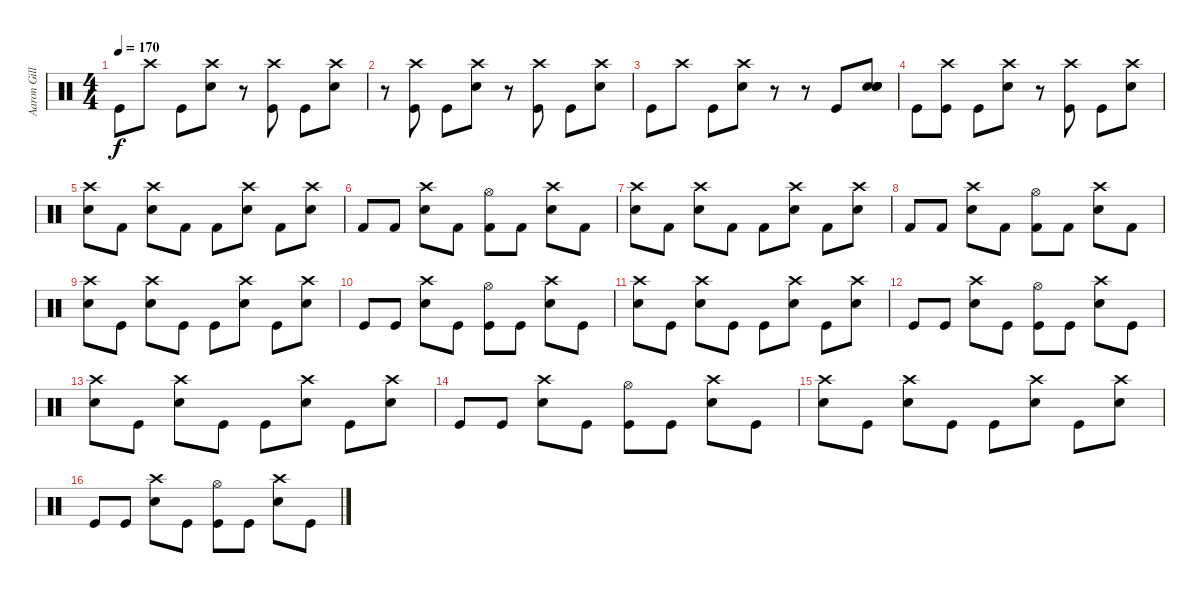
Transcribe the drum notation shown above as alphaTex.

\track ("Aaron Gillepsie (Drums)" "Aaron Gill") {instrument percussion}
\staff {score}
\articulation defaults
\ts (4 4)
\tempo 170
\clef neutral
\ks c "Kick (hit)".8{dy f} "Crash high (hit)".8 "Kick (hit)".8
("Crash high (hit)" "Electric Snare (hit)").8 r.8 ("Crash high (hit)" "Kick (hit)").8 "Kick (hit)".8 ("Crash high (hit)" "Electric Snare (hit)").8 |
r.8 ("Crash high (hit)" "Kick (hit)").8 "Kick (hit)".8 ("Crash high (hit)" "Electric Snare (hit)").8 r.8 ("Crash high (hit)" "Kick (hit)").8 "Kick (hit)".8 ("Crash high (hit)" "Electric Snare (hit)").8 |
"Kick (hit)".8 "Crash high (hit)".8 "Kick (hit)".8 ("Crash high (hit)" "Electric Snare (hit)").8 r.8 r.8 "Kick (hit)".8 ("Electric Snare (hit)" "Electric Snare (hit)" "Electric Snare (hit)").8 |
"Kick (hit)".8 ("Crash high (hit)" "Kick (hit)").8 "Kick (hit)".8 ("Crash high (hit)" "Electric Snare (hit)").8 r.8 ("Crash high (hit)" "Kick (hit)").8 "Kick (hit)".8 ("Crash high (hit)" "Electric Snare (hit)").8 |
("Crash high (hit)" "Snare (hit) 2").8 "Kick (hit) 2".8 ("Crash high (hit)" "Snare (hit) 2").8 "Kick (hit) 2".8 "Kick (hit) 2".8 ("Crash high (hit)" "Snare (hit) 2").8 "Kick (hit) 2".8 ("Crash high (hit)" "Snare (hit) 2").8 |
"Kick (hit) 2".8 "Kick (hit) 2".8 ("Crash high (hit)" "Snare (hit) 2").8 "Kick (hit) 2".8 ("Hi-Hat (open)" "Kick (hit) 2").8 "Kick (hit) 2".8 ("Crash high (hit)" "Snare (hit) 2").8 "Kick (hit) 2".8 |
("Crash high (hit)" "Snare (hit) 2").8 "Kick (hit) 2".8 ("Crash high (hit)" "Snare (hit) 2").8 "Kick (hit) 2".8 "Kick (hit) 2".8 ("Crash high (hit)" "Snare (hit) 2").8 "Kick (hit) 2".8 ("Crash high (hit)" "Snare (hit) 2").8 |
"Kick (hit) 2".8 "Kick (hit) 2".8 ("Crash high (hit)" "Snare (hit) 2").8 "Kick (hit) 2".8 ("Hi-Hat (open)" "Kick (hit) 2").8 "Kick (hit) 2".8 ("Crash high (hit)" "Snare (hit) 2").8 "Kick (hit) 2".8 |
("Crash high (hit)" "Electric Snare (hit)").8 "Kick (hit)".8 ("Crash high (hit)" "Electric Snare (hit)").8 "Kick (hit)".8 "Kick (hit)".8 ("Crash high (hit)" "Electric Snare (hit)").8 "Kick (hit)".8 ("Crash high (hit)" "Electric Snare (hit)").8 |
"Kick (hit)".8 "Kick (hit)".8 ("Crash high (hit)" "Electric Snare (hit)").8 "Kick (hit)".8 ("Hi-Hat (open)" "Kick (hit)").8 "Kick (hit)".8 ("Crash high (hit)" "Electric Snare (hit)").8 "Kick (hit)".8 |
("Crash high (hit)" "Electric Snare (hit)").8 "Kick (hit)".8 ("Crash high (hit)" "Electric Snare (hit)").8 "Kick (hit)".8 "Kick (hit)".8 ("Crash high (hit)" "Electric Snare (hit)").8 "Kick (hit)".8 ("Crash high (hit)" "Electric Snare (hit)").8 |
"Kick (hit)".8 "Kick (hit)".8 ("Crash high (hit)" "Electric Snare (hit)").8 "Kick (hit)".8 ("Hi-Hat (open)" "Kick (hit)").8 "Kick (hit)".8 ("Crash high (hit)" "Electric Snare (hit)").8 "Kick (hit)".8 |
("Crash high (hit)" "Electric Snare (hit)").8 "Kick (hit)".8 ("Crash high (hit)" "Electric Snare (hit)").8 "Kick (hit)".8 "Kick (hit)".8 ("Crash high (hit)" "Electric Snare (hit)").8 "Kick (hit)".8 ("Crash high (hit)" "Electric Snare (hit)").8 |
"Kick (hit)".8 "Kick (hit)".8 ("Crash high (hit)" "Electric Snare (hit)").8 "Kick (hit)".8 ("Hi-Hat (open)" "Kick (hit)").8 "Kick (hit)".8 ("Crash high (hit)" "Electric Snare (hit)").8 "Kick (hit)".8 |
("Crash high (hit)" "Electric Snare (hit)").8 "Kick (hit)".8 ("Crash high (hit)" "Electric Snare (hit)").8 "Kick (hit)".8 "Kick (hit)".8 ("Crash high (hit)" "Electric Snare (hit)").8 "Kick (hit)".8 ("Crash high (hit)" "Electric Snare (hit)").8 |
"Kick (hit)".8 "Kick (hit)".8 ("Crash high (hit)" "Electric Snare (hit)").8 "Kick (hit)".8 ("Hi-Hat (open)" "Kick (hit)").8 "Kick (hit)".8 ("Crash high (hit)" "Electric Snare (hit)").8 "Kick (hit)".8
